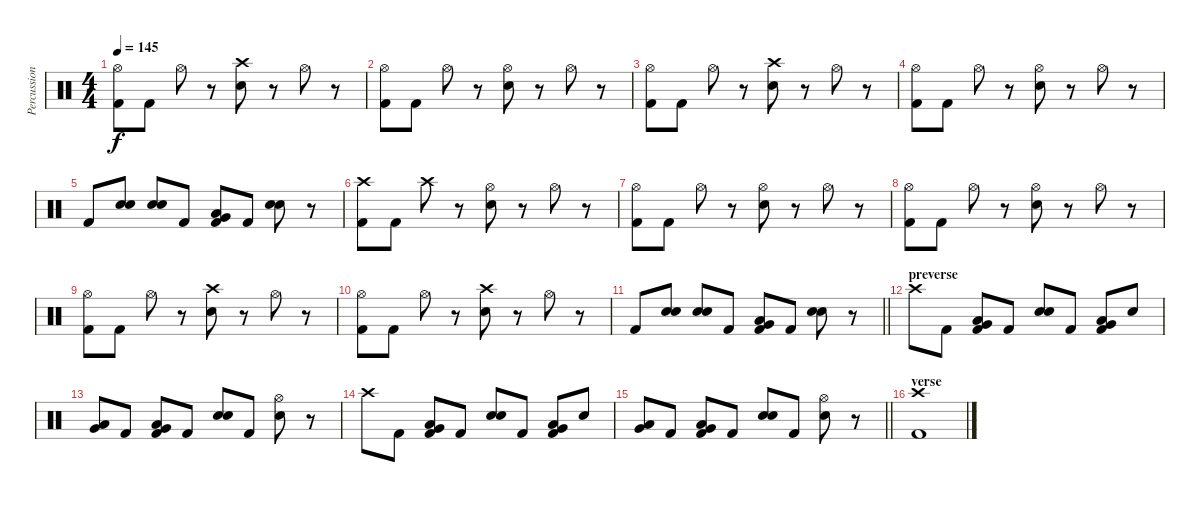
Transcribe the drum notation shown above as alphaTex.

\track ("Percussion" "Percussion") {instrument percussion}
\staff {score}
\articulation defaults
\ts (4 4)
\tempo 145
\clef neutral
\ks c
("Hi-Hat (open)" "Kick (hit) 2").8{dy f} "Kick (hit) 2".8 "Hi-Hat (open)".8 r.8 ("Crash high (hit)" "Electric Snare (hit)").8 r.8 "Hi-Hat (open)".8 r.8 |
("Hi-Hat (open)" "Kick (hit) 2").8 "Kick (hit) 2".8 "Hi-Hat (open)".8 r.8 ("Hi-Hat (open)" "Electric Snare (hit)").8 r.8 "Hi-Hat (open)".8 r.8 |
("Hi-Hat (open)" "Kick (hit) 2").8 "Kick (hit) 2".8 "Hi-Hat (open)".8 r.8 ("Crash high (hit)" "Electric Snare (hit)").8 r.8 "Hi-Hat (open)".8 r.8 |
("Hi-Hat (open)" "Kick (hit) 2").8 "Kick (hit) 2".8 "Hi-Hat (open)".8 r.8 ("Hi-Hat (open)" "Electric Snare (hit)").8 r.8 "Hi-Hat (open)".8 r.8 |
"Kick (hit) 2".8 ("Electric Snare (hit)" "Electric Snare (hit)").8 ("Electric Snare (hit)" "Electric Snare (hit)").8 "Kick (hit) 2".8 ("Low Tom (hit)" "Very Low Tom (hit)" "Kick (hit) 2").8 "Kick (hit) 2".8 ("Electric Snare (hit)" "Electric Snare (hit)").8 r.8 |
("Crash high (hit)" "Kick (hit) 2").8 "Kick (hit) 2".8 "Crash high (hit)".8 r.8 ("Hi-Hat (open)" "Electric Snare (hit)").8 r.8 "Hi-Hat (open)".8 r.8 |
("Hi-Hat (open)" "Kick (hit) 2").8 "Kick (hit) 2".8 "Hi-Hat (open)".8 r.8 ("Hi-Hat (open)" "Electric Snare (hit)").8 r.8 "Hi-Hat (open)".8 r.8 |
("Hi-Hat (open)" "Kick (hit) 2").8 "Kick (hit) 2".8 "Hi-Hat (open)".8 r.8 ("Hi-Hat (open)" "Electric Snare (hit)").8 r.8 "Hi-Hat (open)".8 r.8 |
("Hi-Hat (open)" "Kick (hit) 2").8 "Kick (hit) 2".8 "Hi-Hat (open)".8 r.8 ("Crash high (hit)" "Electric Snare (hit)").8 r.8 "Hi-Hat (open)".8 r.8 |
("Hi-Hat (open)" "Kick (hit) 2").8 "Kick (hit) 2".8 "Hi-Hat (open)".8 r.8 ("Crash high (hit)" "Electric Snare (hit)").8 r.8 "Hi-Hat (open)".8 r.8 |
\barLineRight lightlight "Kick (hit) 2".8
("Electric Snare (hit)" "Electric Snare (hit)").8 ("Electric Snare (hit)" "Electric Snare (hit)").8 "Kick (hit) 2".8 ("Low Tom (hit)" "Very Low Tom (hit)" "Kick (hit) 2").8 "Kick (hit) 2".8 ("Electric Snare (hit)" "Electric Snare (hit)").8 r.8 |
\section ("" "preverse")
"Crash high (hit)".8 "Kick (hit) 2".8 ("Low Tom (hit)" "Very Low Tom (hit)" "Kick (hit) 2").8 "Kick (hit) 2".8 ("Electric Snare (hit)" "Electric Snare (hit)").8 "Kick (hit) 2".8 ("Low Tom (hit)" "Very Low Tom (hit)" "Kick (hit) 2").8 "Electric Snare (hit)".8 |
("Low Tom (hit)" "Very Low Tom (hit)").8 "Kick (hit) 2".8 ("Low Tom (hit)" "Very Low Tom (hit)" "Kick (hit) 2").8 "Kick (hit) 2".8 ("Electric Snare (hit)" "Electric Snare (hit)").8 "Kick (hit) 2".8 ("Hi-Hat (open)" "Electric Snare (hit)").8 r.8 |
"Crash high (hit)".8 "Kick (hit) 2".8 ("Low Tom (hit)" "Very Low Tom (hit)" "Kick (hit) 2").8 "Kick (hit) 2".8 ("Electric Snare (hit)" "Electric Snare (hit)").8 "Kick (hit) 2".8 ("Low Tom (hit)" "Very Low Tom (hit)" "Kick (hit) 2").8 "Electric Snare (hit)".8 |
\barLineRight lightlight
("Low Tom (hit)" "Very Low Tom (hit)").8 "Kick (hit) 2".8 ("Low Tom (hit)" "Very Low Tom (hit)" "Kick (hit) 2").8 "Kick (hit) 2".8 ("Electric Snare (hit)" "Electric Snare (hit)").8 "Kick (hit) 2".8 ("Hi-Hat (open)" "Electric Snare (hit)").8 r.8 |
\section ("" "verse")
("Crash high (hit)" "Kick (hit) 2").1
